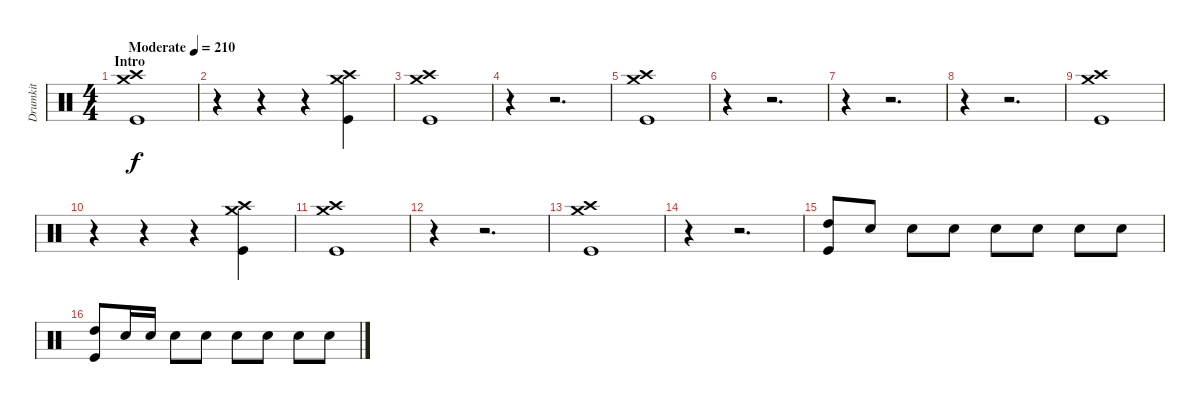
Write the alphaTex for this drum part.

\track ("Drumkit" "Drumkit") {instrument percussion}
\staff {score}
\articulation defaults
\ts (4 4)
\section ("" "Intro")
\tempo (210 "Moderate")
\clef neutral
\ks c
("Crash high (hit)" "Crash medium (hit)" "Kick (hit)").1{dy f} |
r.4 r.4 r.4 ("Crash high (hit)" "Crash medium (hit)" "Kick (hit)").4 |
("Crash high (hit)" "Crash medium (hit)" "Kick (hit)").1 |
r.4 r.2{d} |
("Crash high (hit)" "Crash medium (hit)" "Kick (hit)").1 |
r.4 r.2{d} |
r.4 r.2{d} |
r.4 r.2{d} |
("Crash high (hit)" "Crash medium (hit)" "Kick (hit)").1 |
r.4 r.4 r.4 ("Crash high (hit)" "Crash medium (hit)" "Kick (hit)").4 |
("Crash high (hit)" "Crash medium (hit)" "Kick (hit)").1 |
r.4 r.2{d} |
("Crash high (hit)" "Crash medium (hit)" "Kick (hit)").1 |
r.4 r.2{d} |
("High Tom (hit)" "Kick (hit)").8 "Snare (hit) 2".8 "Snare (hit) 2".8 "Snare (hit) 2".8 "Snare (hit) 2".8 "Snare (hit) 2".8 "Snare (hit) 2".8 "Snare (hit) 2".8 |
("High Tom (hit)" "Kick (hit)").8 "Snare (hit) 2".16 "Snare (hit) 2".16 "Snare (hit) 2".8 "Snare (hit) 2".8 "Snare (hit) 2".8 "Snare (hit) 2".8 "Snare (hit) 2".8 "Snare (hit) 2".8
